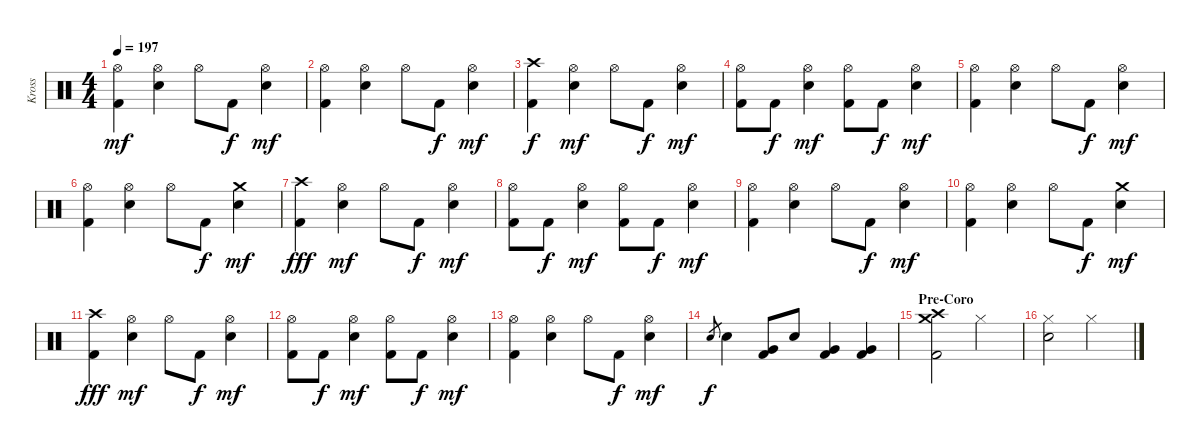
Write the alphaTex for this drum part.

\track ("Kross" "Kross") {instrument percussion}
\staff {score}
\articulation defaults
\ts (4 4)
\tempo 197
\clef neutral
\ks c
("Hi-Hat (open)" "Kick (hit) 2").4{dy mf} ("Hi-Hat (open)" "Electric Snare (hit)").4 "Hi-Hat (open)".8 "Kick (hit) 2".8{dy f} ("Hi-Hat (open)" "Electric Snare (hit)").4{dy mf} |
("Hi-Hat (open)" "Kick (hit) 2").4 ("Hi-Hat (open)" "Electric Snare (hit)").4 "Hi-Hat (open)".8 "Kick (hit) 2".8{dy f} ("Hi-Hat (open)" "Electric Snare (hit)").4{dy mf} |
("Crash high (hit)" "Kick (hit) 2").4{dy f} ("Hi-Hat (open)" "Electric Snare (hit)").4{dy mf} "Hi-Hat (open)".8 "Kick (hit) 2".8{dy f} ("Hi-Hat (open)" "Electric Snare (hit)").4{dy mf} |
("Hi-Hat (open)" "Kick (hit) 2").8 "Kick (hit) 2".8{dy f} ("Hi-Hat (open)" "Electric Snare (hit)").4{dy mf} ("Hi-Hat (open)" "Kick (hit) 2").8 "Kick (hit) 2".8{dy f} ("Hi-Hat (open)" "Electric Snare (hit)").4{dy mf} |
("Hi-Hat (open)" "Kick (hit) 2").4 ("Hi-Hat (open)" "Electric Snare (hit)").4 "Hi-Hat (open)".8 "Kick (hit) 2".8{dy f} ("Hi-Hat (open)" "Electric Snare (hit)").4{dy mf} |
("Hi-Hat (open)" "Kick (hit) 2").4 ("Hi-Hat (open)" "Electric Snare (hit)").4 "Hi-Hat (open)".8 "Kick (hit) 2".8{dy f} ("Crash medium (hit)" "Electric Snare (hit)").4{dy mf} |
("Crash high (hit)" "Kick (hit) 2").4{dy fff} ("Hi-Hat (open)" "Electric Snare (hit)").4{dy mf} "Hi-Hat (open)".8 "Kick (hit) 2".8{dy f} ("Hi-Hat (open)" "Electric Snare (hit)").4{dy mf} |
("Hi-Hat (open)" "Kick (hit) 2").8 "Kick (hit) 2".8{dy f} ("Hi-Hat (open)" "Electric Snare (hit)").4{dy mf} ("Hi-Hat (open)" "Kick (hit) 2").8 "Kick (hit) 2".8{dy f} ("Hi-Hat (open)" "Electric Snare (hit)").4{dy mf} |
("Hi-Hat (open)" "Kick (hit) 2").4 ("Hi-Hat (open)" "Electric Snare (hit)").4 "Hi-Hat (open)".8 "Kick (hit) 2".8{dy f} ("Hi-Hat (open)" "Electric Snare (hit)").4{dy mf} |
("Hi-Hat (open)" "Kick (hit) 2").4 ("Hi-Hat (open)" "Electric Snare (hit)").4 "Hi-Hat (open)".8 "Kick (hit) 2".8{dy f} ("Crash medium (hit)" "Electric Snare (hit)").4{dy mf} |
("Crash high (hit)" "Kick (hit) 2").4{dy fff} ("Hi-Hat (open)" "Electric Snare (hit)").4{dy mf} "Hi-Hat (open)".8 "Kick (hit) 2".8{dy f} ("Hi-Hat (open)" "Electric Snare (hit)").4{dy mf} |
("Hi-Hat (open)" "Kick (hit) 2").8 "Kick (hit) 2".8{dy f} ("Hi-Hat (open)" "Electric Snare (hit)").4{dy mf} ("Hi-Hat (open)" "Kick (hit) 2").8 "Kick (hit) 2".8{dy f} ("Hi-Hat (open)" "Electric Snare (hit)").4{dy mf} |
("Hi-Hat (open)" "Kick (hit) 2").4 ("Hi-Hat (open)" "Electric Snare (hit)").4 "Hi-Hat (open)".8 "Kick (hit) 2".8{dy f} ("Hi-Hat (open)" "Electric Snare (hit)").4{dy mf} |
"Electric Snare (hit)".8{gr dy f} "Electric Snare (hit)".4 ("Very Low Tom (hit)" "Kick (hit) 2").8 "Electric Snare (hit)".8 ("Very Low Tom (hit)" "Kick (hit) 2").4 ("Very Low Tom (hit)" "Kick (hit) 2").4 |
\section ("" "Pre-Coro")
("Crash medium (hit)" "Crash high (hit)" "Kick (hit) 2").2 "Hi-Hat (closed)".2 |
("Hi-Hat (closed)" "Electric Snare (hit)").2 "Hi-Hat (closed)".2
